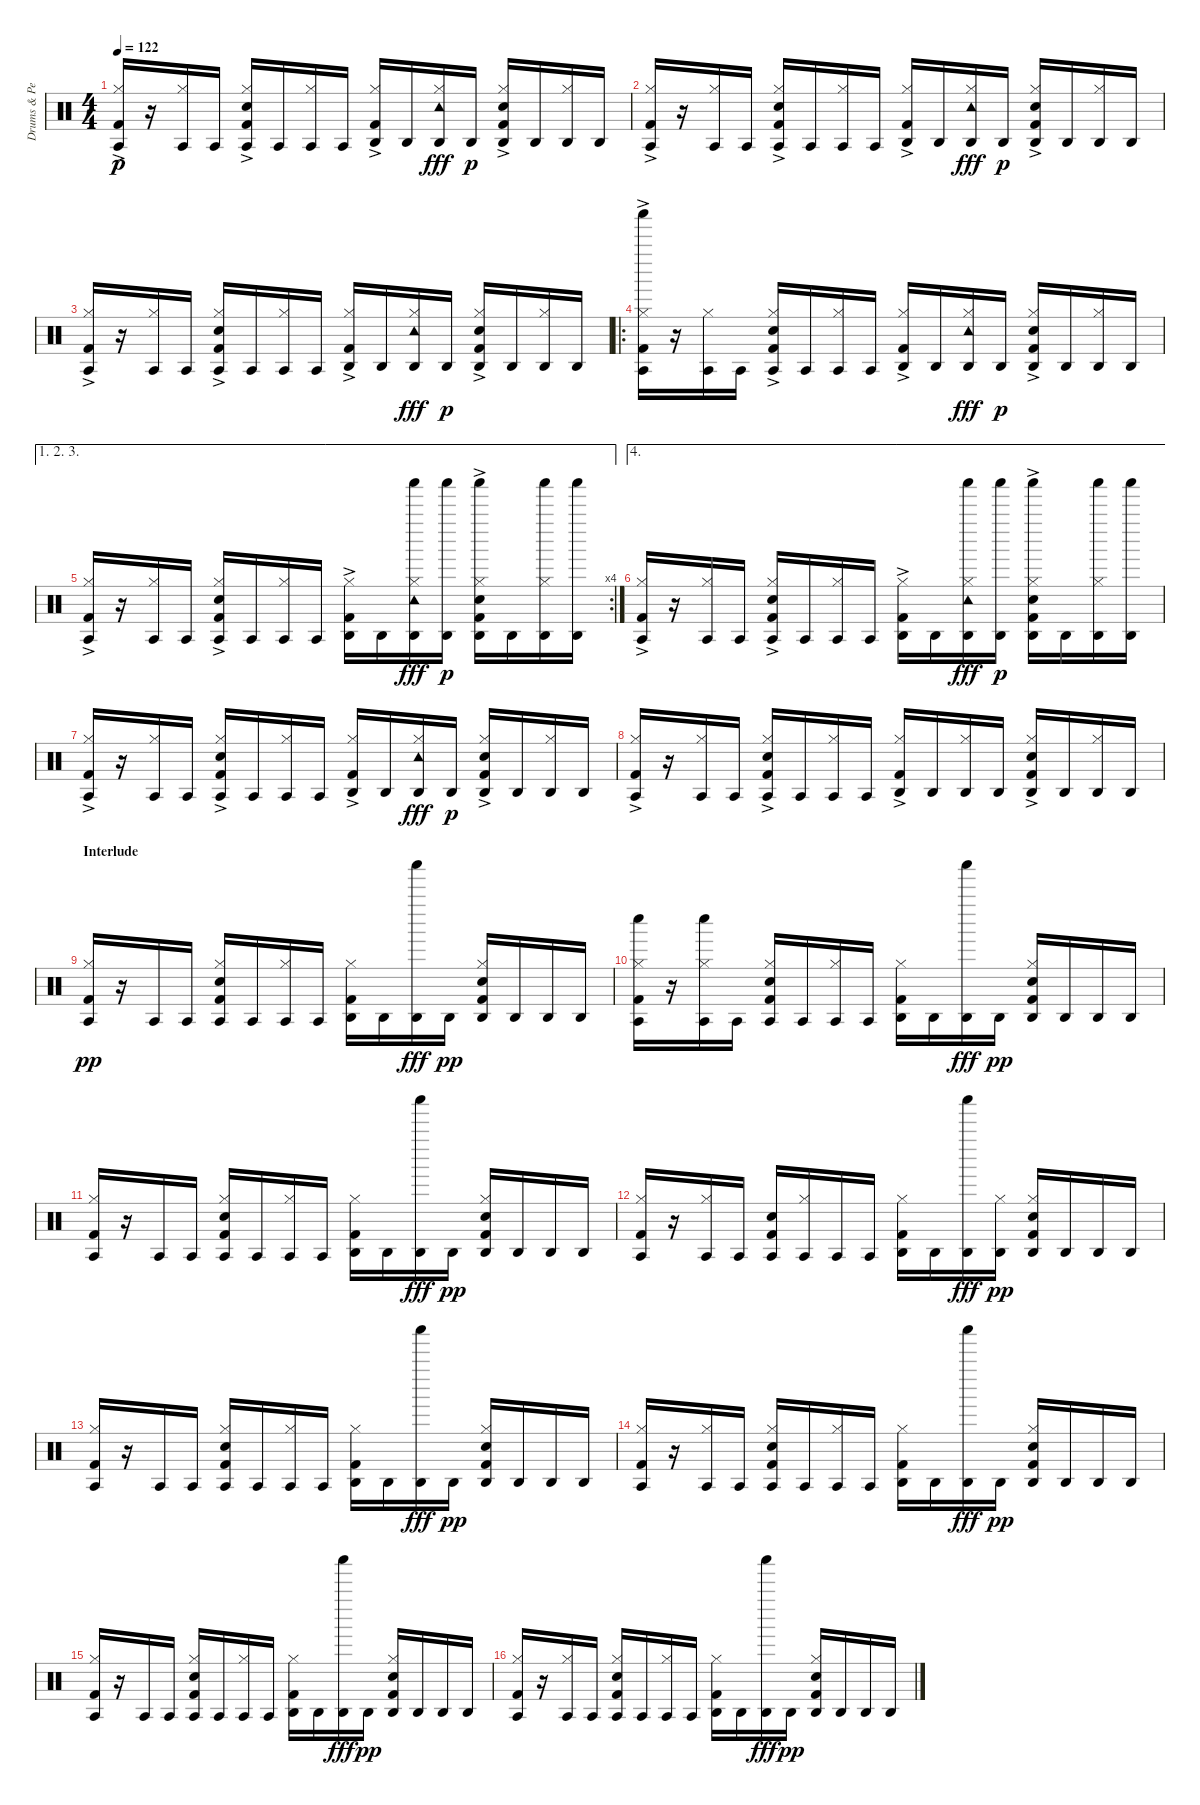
\track ("Drums & Percussion" "Drums & Pe") {instrument percussion}
\staff {score}
\articulation defaults
\ts (4 4)
\tempo 122
\clef neutral
\ks c
("Hi-Hat (closed)"{ac} "Agogo tow (hit)" "Kick (hit) 2").16{dy p} r.16 ("Hi-Hat (closed)" "Agogo tow (hit)").16 "Agogo tow (hit)".16 ("Hi-Hat (closed)"{ac} "Agogo tow (hit)" "Electric Snare (hit)" "Kick (hit) 2").16 "Agogo tow (hit)".16 ("Hi-Hat (closed)" "Agogo tow (hit)").16 "Agogo tow (hit)".16 ("Hi-Hat (closed)"{ac} "Agogo high (hit)" "Kick (hit) 2").16 "Agogo high (hit)".16 ("Hi-Hat (closed)" "Agogo high (hit)" "Tambourine (hit)").16{dy fff} "Agogo high (hit)".16{dy p} ("Hi-Hat (closed)"{ac} "Agogo high (hit)" "Electric Snare (hit)" "Kick (hit) 2").16 "Agogo high (hit)".16 ("Hi-Hat (closed)" "Agogo high (hit)").16 "Agogo high (hit)".16 |
("Hi-Hat (closed)"{ac} "Agogo tow (hit)" "Kick (hit) 2").16 r.16 ("Hi-Hat (closed)" "Agogo tow (hit)").16 "Agogo tow (hit)".16 ("Hi-Hat (closed)"{ac} "Agogo tow (hit)" "Electric Snare (hit)" "Kick (hit) 2").16 "Agogo tow (hit)".16 ("Hi-Hat (closed)" "Agogo tow (hit)").16 "Agogo tow (hit)".16 ("Hi-Hat (closed)"{ac} "Agogo high (hit)" "Kick (hit) 2").16 "Agogo high (hit)".16 ("Hi-Hat (closed)" "Agogo high (hit)" "Tambourine (hit)").16{dy fff} "Agogo high (hit)".16{dy p} ("Hi-Hat (closed)"{ac} "Agogo high (hit)" "Electric Snare (hit)" "Kick (hit) 2").16 "Agogo high (hit)".16 ("Hi-Hat (closed)" "Agogo high (hit)").16 "Agogo high (hit)".16 |
("Hi-Hat (closed)"{ac} "Agogo tow (hit)" "Kick (hit) 2").16 r.16 ("Hi-Hat (closed)" "Agogo tow (hit)").16 "Agogo tow (hit)".16 ("Hi-Hat (closed)"{ac} "Agogo tow (hit)" "Electric Snare (hit)" "Kick (hit) 2").16 "Agogo tow (hit)".16 ("Hi-Hat (closed)" "Agogo tow (hit)").16 "Agogo tow (hit)".16 ("Hi-Hat (closed)"{ac} "Agogo high (hit)" "Kick (hit) 2").16 "Agogo high (hit)".16 ("Hi-Hat (closed)" "Agogo high (hit)" "Tambourine (hit)").16{dy fff} "Agogo high (hit)".16{dy p} ("Hi-Hat (closed)"{ac} "Agogo high (hit)" "Electric Snare (hit)" "Kick (hit) 2").16 "Agogo high (hit)".16 ("Hi-Hat (closed)" "Agogo high (hit)").16 "Agogo high (hit)".16 |
\ro
("Shaker (hit)" "Hi-Hat (closed)"{ac} "Agogo tow (hit)" "Kick (hit) 2").16 r.16 ("Hi-Hat (closed)" "Agogo tow (hit)").16 "Agogo tow (hit)".16 ("Hi-Hat (closed)"{ac} "Agogo tow (hit)" "Electric Snare (hit)" "Kick (hit) 2").16 "Agogo tow (hit)".16 ("Hi-Hat (closed)" "Agogo tow (hit)").16 "Agogo tow (hit)".16 ("Hi-Hat (closed)"{ac} "Agogo high (hit)" "Kick (hit) 2").16 "Agogo high (hit)".16 ("Hi-Hat (closed)" "Agogo high (hit)" "Tambourine (hit)").16{dy fff} "Agogo high (hit)".16{dy p} ("Hi-Hat (closed)"{ac} "Agogo high (hit)" "Electric Snare (hit)" "Kick (hit) 2").16 "Agogo high (hit)".16 ("Hi-Hat (closed)" "Agogo high (hit)").16 "Agogo high (hit)".16 |
\ae (1 2 3)
\rc 4
("Hi-Hat (closed)"{ac} "Agogo tow (hit)" "Kick (hit) 2").16 r.16 ("Hi-Hat (closed)" "Agogo tow (hit)").16 "Agogo tow (hit)".16 ("Hi-Hat (closed)"{ac} "Agogo tow (hit)" "Electric Snare (hit)" "Kick (hit) 2").16 "Agogo tow (hit)".16 ("Hi-Hat (closed)" "Agogo tow (hit)").16 "Agogo tow (hit)".16 ("Hi-Hat (closed)"{ac} "Agogo high (hit)" "Kick (hit) 2").16 "Agogo high (hit)".16 ("Shaker (hit)" "Hi-Hat (closed)" "Agogo high (hit)" "Tambourine (hit)").16{dy fff} ("Shaker (hit)" "Agogo high (hit)").16{dy p} ("Shaker (hit)" "Hi-Hat (closed)"{ac} "Agogo high (hit)" "Electric Snare (hit)" "Kick (hit) 2").16 "Agogo high (hit)".16 ("Shaker (hit)" "Hi-Hat (closed)" "Agogo high (hit)").16 ("Shaker (hit)" "Agogo high (hit)").16 |
\ae 4
("Hi-Hat (closed)"{ac} "Agogo tow (hit)" "Kick (hit) 2").16 r.16 ("Hi-Hat (closed)" "Agogo tow (hit)").16 "Agogo tow (hit)".16 ("Hi-Hat (closed)"{ac} "Agogo tow (hit)" "Electric Snare (hit)" "Kick (hit) 2").16 "Agogo tow (hit)".16 ("Hi-Hat (closed)" "Agogo tow (hit)").16 "Agogo tow (hit)".16 ("Hi-Hat (closed)"{ac} "Agogo high (hit)" "Kick (hit) 2").16 "Agogo high (hit)".16 ("Shaker (hit)" "Hi-Hat (closed)" "Agogo high (hit)" "Tambourine (hit)").16{dy fff} ("Shaker (hit)" "Agogo high (hit)").16{dy p} ("Shaker (hit)" "Hi-Hat (closed)"{ac} "Agogo high (hit)" "Electric Snare (hit)" "Kick (hit) 2").16 "Agogo high (hit)".16 ("Shaker (hit)" "Hi-Hat (closed)" "Agogo high (hit)").16 ("Shaker (hit)" "Agogo high (hit)").16 |
("Hi-Hat (closed)"{ac} "Agogo tow (hit)" "Kick (hit) 2").16 r.16 ("Hi-Hat (closed)" "Agogo tow (hit)").16 "Agogo tow (hit)".16 ("Hi-Hat (closed)"{ac} "Agogo tow (hit)" "Electric Snare (hit)" "Kick (hit) 2").16 "Agogo tow (hit)".16 ("Hi-Hat (closed)" "Agogo tow (hit)").16 "Agogo tow (hit)".16 ("Hi-Hat (closed)"{ac} "Agogo high (hit)" "Kick (hit) 2").16 "Agogo high (hit)".16 ("Hi-Hat (closed)" "Agogo high (hit)" "Tambourine (hit)").16{dy fff} "Agogo high (hit)".16{dy p} ("Hi-Hat (closed)"{ac} "Agogo high (hit)" "Electric Snare (hit)" "Kick (hit) 2").16 "Agogo high (hit)".16 ("Hi-Hat (closed)" "Agogo high (hit)").16 "Agogo high (hit)".16 |
("Hi-Hat (closed)"{ac} "Agogo tow (hit)" "Kick (hit) 2").16 r.16 ("Hi-Hat (closed)" "Agogo tow (hit)").16 "Agogo tow (hit)".16 ("Hi-Hat (closed)"{ac} "Agogo tow (hit)" "Electric Snare (hit)" "Kick (hit) 2").16 "Agogo tow (hit)".16 ("Hi-Hat (closed)" "Agogo tow (hit)").16 "Agogo tow (hit)".16 ("Hi-Hat (closed)"{ac} "Agogo high (hit)" "Kick (hit) 2").16 "Agogo high (hit)".16 ("Hi-Hat (closed)" "Agogo high (hit)").16 "Agogo high (hit)".16 ("Hi-Hat (closed)"{ac} "Agogo high (hit)" "Electric Snare (hit)" "Kick (hit) 2").16 "Agogo high (hit)".16 ("Hi-Hat (closed)" "Agogo high (hit)").16 "Agogo high (hit)".16 |
\section ("" "Interlude")
("Hi-Hat (closed)" "Agogo tow (hit)" "Kick (hit) 2").16{dy pp} r.16 "Agogo tow (hit)".16 "Agogo tow (hit)".16 ("Hi-Hat (closed)" "Agogo tow (hit)" "Electric Snare (hit)" "Kick (hit) 2").16 "Agogo tow (hit)".16 ("Hi-Hat (closed)" "Agogo tow (hit)").16 "Agogo tow (hit)".16 ("Hi-Hat (closed)" "Agogo high (hit)" "Kick (hit) 2").16 "Agogo high (hit)".16 ("Agogo high (hit)" "Shaker (hit)").16{dy fff} "Agogo high (hit)".16{dy pp} ("Hi-Hat (closed)" "Agogo high (hit)" "Electric Snare (hit)" "Kick (hit) 2").16 "Agogo high (hit)".16 "Agogo high (hit)".16 "Agogo high (hit)".16 |
("Hi-Hat (closed)" "Whistle low (hit)" "Agogo tow (hit)" "Kick (hit) 2").16 r.16 ("Hi-Hat (closed)" "Whistle low (hit)" "Agogo tow (hit)").16 "Agogo tow (hit)".16 ("Hi-Hat (closed)" "Agogo tow (hit)" "Electric Snare (hit)" "Kick (hit) 2").16 "Agogo tow (hit)".16 ("Hi-Hat (closed)" "Agogo tow (hit)").16 "Agogo tow (hit)".16 ("Hi-Hat (closed)" "Agogo high (hit)" "Kick (hit) 2").16 "Agogo high (hit)".16 ("Agogo high (hit)" "Shaker (hit)").16{dy fff} "Agogo high (hit)".16{dy pp} ("Hi-Hat (closed)" "Agogo high (hit)" "Electric Snare (hit)" "Kick (hit) 2").16 "Agogo high (hit)".16 "Agogo high (hit)".16 "Agogo high (hit)".16 |
("Hi-Hat (closed)" "Agogo tow (hit)" "Kick (hit) 2").16 r.16 "Agogo tow (hit)".16 "Agogo tow (hit)".16 ("Hi-Hat (closed)" "Agogo tow (hit)" "Electric Snare (hit)" "Kick (hit) 2").16 "Agogo tow (hit)".16 ("Hi-Hat (closed)" "Agogo tow (hit)").16 "Agogo tow (hit)".16 ("Hi-Hat (closed)" "Agogo high (hit)" "Kick (hit) 2").16 "Agogo high (hit)".16 ("Agogo high (hit)" "Shaker (hit)").16{dy fff} "Agogo high (hit)".16{dy pp} ("Hi-Hat (closed)" "Agogo high (hit)" "Electric Snare (hit)" "Kick (hit) 2").16 "Agogo high (hit)".16 "Agogo high (hit)".16 "Agogo high (hit)".16 |
("Hi-Hat (closed)" "Agogo tow (hit)" "Kick (hit) 2").16 r.16 ("Hi-Hat (closed)" "Agogo tow (hit)").16 "Agogo tow (hit)".16 ("Agogo tow (hit)" "Electric Snare (hit)" "Kick (hit) 2").16 ("Hi-Hat (closed)" "Agogo tow (hit)").16 "Agogo tow (hit)".16 "Agogo tow (hit)".16 ("Hi-Hat (closed)" "Agogo high (hit)" "Kick (hit) 2").16 "Agogo high (hit)".16 ("Agogo high (hit)" "Shaker (hit)").16{dy fff} ("Hi-Hat (closed)" "Agogo high (hit)").16{dy pp} ("Hi-Hat (closed)" "Agogo high (hit)" "Electric Snare (hit)" "Kick (hit) 2").16 "Agogo high (hit)".16 "Agogo high (hit)".16 "Agogo high (hit)".16 |
("Hi-Hat (closed)" "Agogo tow (hit)" "Kick (hit) 2").16 r.16 "Agogo tow (hit)".16 "Agogo tow (hit)".16 ("Hi-Hat (closed)" "Agogo tow (hit)" "Electric Snare (hit)" "Kick (hit) 2").16 "Agogo tow (hit)".16 ("Hi-Hat (closed)" "Agogo tow (hit)").16 "Agogo tow (hit)".16 ("Hi-Hat (closed)" "Agogo high (hit)" "Kick (hit) 2").16 "Agogo high (hit)".16 ("Agogo high (hit)" "Shaker (hit)").16{dy fff} "Agogo high (hit)".16{dy pp} ("Hi-Hat (closed)" "Agogo high (hit)" "Electric Snare (hit)" "Kick (hit) 2").16 "Agogo high (hit)".16 "Agogo high (hit)".16 "Agogo high (hit)".16 |
("Hi-Hat (closed)" "Agogo tow (hit)" "Kick (hit) 2").16 r.16 ("Hi-Hat (closed)" "Agogo tow (hit)").16 "Agogo tow (hit)".16 ("Hi-Hat (closed)" "Agogo tow (hit)" "Electric Snare (hit)" "Kick (hit) 2").16 "Agogo tow (hit)".16 ("Hi-Hat (closed)" "Agogo tow (hit)").16 "Agogo tow (hit)".16 ("Hi-Hat (closed)" "Agogo high (hit)" "Kick (hit) 2").16 "Agogo high (hit)".16 ("Agogo high (hit)" "Shaker (hit)").16{dy fff} "Agogo high (hit)".16{dy pp} ("Hi-Hat (closed)" "Agogo high (hit)" "Electric Snare (hit)" "Kick (hit) 2").16 "Agogo high (hit)".16 "Agogo high (hit)".16 "Agogo high (hit)".16 |
("Hi-Hat (closed)" "Agogo tow (hit)" "Kick (hit) 2").16 r.16 "Agogo tow (hit)".16 "Agogo tow (hit)".16 ("Hi-Hat (closed)" "Agogo tow (hit)" "Electric Snare (hit)" "Kick (hit) 2").16 "Agogo tow (hit)".16 ("Hi-Hat (closed)" "Agogo tow (hit)").16 "Agogo tow (hit)".16 ("Hi-Hat (closed)" "Agogo high (hit)" "Kick (hit) 2").16 "Agogo high (hit)".16 ("Agogo high (hit)" "Shaker (hit)").16{dy fff} "Agogo high (hit)".16{dy pp} ("Hi-Hat (closed)" "Agogo high (hit)" "Electric Snare (hit)" "Kick (hit) 2").16 "Agogo high (hit)".16 "Agogo high (hit)".16 "Agogo high (hit)".16 |
("Hi-Hat (closed)" "Agogo tow (hit)" "Kick (hit) 2").16 r.16 ("Hi-Hat (closed)" "Agogo tow (hit)").16 "Agogo tow (hit)".16 ("Hi-Hat (closed)" "Agogo tow (hit)" "Electric Snare (hit)" "Kick (hit) 2").16 "Agogo tow (hit)".16 ("Hi-Hat (closed)" "Agogo tow (hit)").16 "Agogo tow (hit)".16 ("Hi-Hat (closed)" "Agogo high (hit)" "Kick (hit) 2").16 "Agogo high (hit)".16 ("Agogo high (hit)" "Shaker (hit)").16{dy fff} "Agogo high (hit)".16{dy pp} ("Hi-Hat (closed)" "Agogo high (hit)" "Electric Snare (hit)" "Kick (hit) 2").16 "Agogo high (hit)".16 "Agogo high (hit)".16 "Agogo high (hit)".16
